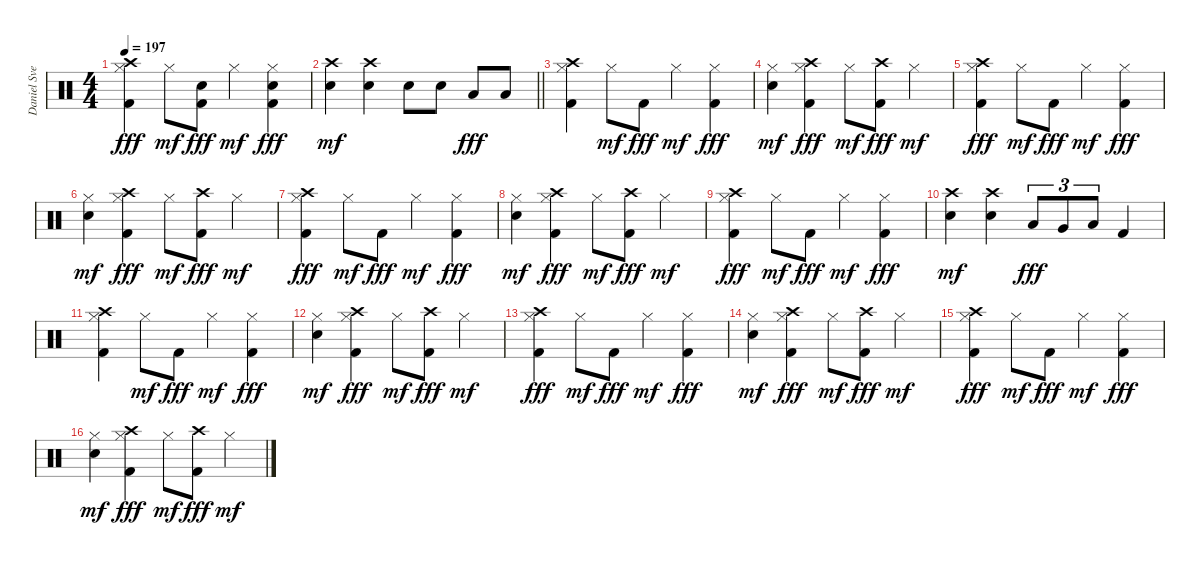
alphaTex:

\track ("Daniel Svensson" "Daniel Sve") {instrument percussion}
\staff {score}
\articulation defaults
\ts (4 4)
\tempo 197
\clef neutral
\ks c
("Crash high (hit)" "Hi-Hat (closed)" "Kick (hit) 2").4{dy fff} "Hi-Hat (closed)".8{dy mf} ("Electric Snare (hit)" "Kick (hit) 2").8{dy fff} "Hi-Hat (closed)".4{dy mf} ("Hi-Hat (closed)" "Electric Snare (hit)" "Kick (hit) 2").4{dy fff} |
\barLineRight lightlight
("Crash high (hit)" "Electric Snare (hit)").4{dy mf} ("Crash high (hit)" "Electric Snare (hit)").4 "Electric Snare (hit)".8 "Electric Snare (hit)".8 "Low Floor Tom (hit)".8{dy fff} "Low Floor Tom (hit)".8 |
("Crash high (hit)" "Hi-Hat (closed)" "Kick (hit) 2").4 "Hi-Hat (closed)".8{dy mf} "Kick (hit) 2".8{dy fff} "Hi-Hat (closed)".4{dy mf} ("Hi-Hat (closed)" "Kick (hit) 2").4{dy fff} |
("Hi-Hat (closed)" "Electric Snare (hit)").4{dy mf} ("Crash high (hit)" "Hi-Hat (closed)" "Kick (hit) 2").4{dy fff} "Hi-Hat (closed)".8{dy mf} ("Crash high (hit)" "Kick (hit) 2").8{dy fff} "Hi-Hat (closed)".4{dy mf} |
("Crash high (hit)" "Hi-Hat (closed)" "Kick (hit) 2").4{dy fff} "Hi-Hat (closed)".8{dy mf} "Kick (hit) 2".8{dy fff} "Hi-Hat (closed)".4{dy mf} ("Hi-Hat (closed)" "Kick (hit) 2").4{dy fff} |
("Hi-Hat (closed)" "Electric Snare (hit)").4{dy mf} ("Crash high (hit)" "Hi-Hat (closed)" "Kick (hit) 2").4{dy fff} "Hi-Hat (closed)".8{dy mf} ("Crash high (hit)" "Kick (hit) 2").8{dy fff} "Hi-Hat (closed)".4{dy mf} |
("Crash high (hit)" "Hi-Hat (closed)" "Kick (hit) 2").4{dy fff} "Hi-Hat (closed)".8{dy mf} "Kick (hit) 2".8{dy fff} "Hi-Hat (closed)".4{dy mf} ("Hi-Hat (closed)" "Kick (hit) 2").4{dy fff} |
("Hi-Hat (closed)" "Electric Snare (hit)").4{dy mf} ("Crash high (hit)" "Hi-Hat (closed)" "Kick (hit) 2").4{dy fff} "Hi-Hat (closed)".8{dy mf} ("Crash high (hit)" "Kick (hit) 2").8{dy fff} "Hi-Hat (closed)".4{dy mf} |
("Crash high (hit)" "Hi-Hat (closed)" "Kick (hit) 2").4{dy fff} "Hi-Hat (closed)".8{dy mf} "Kick (hit) 2".8{dy fff} "Hi-Hat (closed)".4{dy mf} ("Hi-Hat (closed)" "Kick (hit) 2").4{dy fff} |
("Crash high (hit)" "Electric Snare (hit)").4{dy mf} ("Crash high (hit)" "Electric Snare (hit)").4 "Low Tom (hit)".8{tu (3 2) dy fff} "Very Low Tom (hit)".8{tu (3 2)} "Low Floor Tom (hit)".8{tu (3 2)} "Kick (hit) 2".4 |
("Crash high (hit)" "Hi-Hat (closed)" "Kick (hit) 2").4 "Hi-Hat (closed)".8{dy mf} "Kick (hit) 2".8{dy fff} "Hi-Hat (closed)".4{dy mf} ("Hi-Hat (closed)" "Kick (hit) 2").4{dy fff} |
("Hi-Hat (closed)" "Electric Snare (hit)").4{dy mf} ("Crash high (hit)" "Hi-Hat (closed)" "Kick (hit) 2").4{dy fff} "Hi-Hat (closed)".8{dy mf} ("Crash high (hit)" "Kick (hit) 2").8{dy fff} "Hi-Hat (closed)".4{dy mf} |
("Crash high (hit)" "Hi-Hat (closed)" "Kick (hit) 2").4{dy fff} "Hi-Hat (closed)".8{dy mf} "Kick (hit) 2".8{dy fff} "Hi-Hat (closed)".4{dy mf} ("Hi-Hat (closed)" "Kick (hit) 2").4{dy fff} |
("Hi-Hat (closed)" "Electric Snare (hit)").4{dy mf} ("Crash high (hit)" "Hi-Hat (closed)" "Kick (hit) 2").4{dy fff} "Hi-Hat (closed)".8{dy mf} ("Crash high (hit)" "Kick (hit) 2").8{dy fff} "Hi-Hat (closed)".4{dy mf} |
("Crash high (hit)" "Hi-Hat (closed)" "Kick (hit) 2").4{dy fff} "Hi-Hat (closed)".8{dy mf} "Kick (hit) 2".8{dy fff} "Hi-Hat (closed)".4{dy mf} ("Hi-Hat (closed)" "Kick (hit) 2").4{dy fff} |
("Hi-Hat (closed)" "Electric Snare (hit)").4{dy mf} ("Crash high (hit)" "Hi-Hat (closed)" "Kick (hit) 2").4{dy fff} "Hi-Hat (closed)".8{dy mf} ("Crash high (hit)" "Kick (hit) 2").8{dy fff} "Hi-Hat (closed)".4{dy mf}
